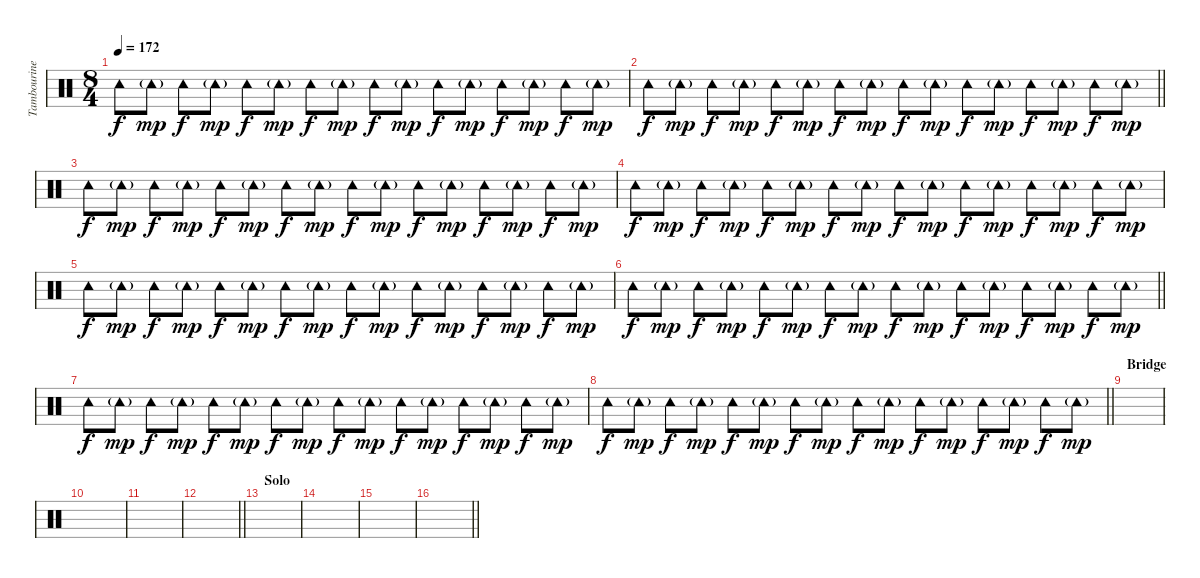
\track ("Tambourine" "Tambourine") {instrument percussion}
\staff {score}
\articulation defaults
\ts (8 4)
\tempo 172
\clef neutral
\ks c "Tambourine (hit)".8{dy f volume 8} "Tambourine (hit)"{g}.8{dy mp} "Tambourine (hit)".8{dy f} "Tambourine (hit)"{g}.8{dy mp} "Tambourine (hit)".8{dy f} "Tambourine (hit)"{g}.8{dy mp} "Tambourine (hit)".8{dy f} "Tambourine (hit)"{g}.8{dy mp} "Tambourine (hit)".8{dy f} "Tambourine (hit)"{g}.8{dy mp} "Tambourine (hit)".8{dy f} "Tambourine (hit)"{g}.8{dy mp} "Tambourine (hit)".8{dy f} "Tambourine (hit)"{g}.8{dy mp} "Tambourine (hit)".8{dy f} "Tambourine (hit)"{g}.8{dy mp}
|
\barLineRight lightlight "Tambourine (hit)".8{dy f} "Tambourine (hit)"{g}.8{dy mp} "Tambourine (hit)".8{dy f} "Tambourine (hit)"{g}.8{dy mp} "Tambourine (hit)".8{dy f} "Tambourine (hit)"{g}.8{dy mp} "Tambourine (hit)".8{dy f} "Tambourine (hit)"{g}.8{dy mp} "Tambourine (hit)".8{dy f} "Tambourine (hit)"{g}.8{dy mp} "Tambourine (hit)".8{dy f} "Tambourine (hit)"{g}.8{dy mp} "Tambourine (hit)".8{dy f} "Tambourine (hit)"{g}.8{dy mp} "Tambourine (hit)".8{dy f} "Tambourine (hit)"{g}.8{dy mp}
|
"Tambourine (hit)".8{dy f} "Tambourine (hit)"{g}.8{dy mp} "Tambourine (hit)".8{dy f} "Tambourine (hit)"{g}.8{dy mp} "Tambourine (hit)".8{dy f} "Tambourine (hit)"{g}.8{dy mp} "Tambourine (hit)".8{dy f} "Tambourine (hit)"{g}.8{dy mp} "Tambourine (hit)".8{dy f} "Tambourine (hit)"{g}.8{dy mp} "Tambourine (hit)".8{dy f} "Tambourine (hit)"{g}.8{dy mp} "Tambourine (hit)".8{dy f} "Tambourine (hit)"{g}.8{dy mp} "Tambourine (hit)".8{dy f} "Tambourine (hit)"{g}.8{dy mp} |
"Tambourine (hit)".8{dy f} "Tambourine (hit)"{g}.8{dy mp} "Tambourine (hit)".8{dy f} "Tambourine (hit)"{g}.8{dy mp} "Tambourine (hit)".8{dy f} "Tambourine (hit)"{g}.8{dy mp} "Tambourine (hit)".8{dy f} "Tambourine (hit)"{g}.8{dy mp} "Tambourine (hit)".8{dy f} "Tambourine (hit)"{g}.8{dy mp} "Tambourine (hit)".8{dy f} "Tambourine (hit)"{g}.8{dy mp} "Tambourine (hit)".8{dy f} "Tambourine (hit)"{g}.8{dy mp} "Tambourine (hit)".8{dy f} "Tambourine (hit)"{g}.8{dy mp} |
"Tambourine (hit)".8{dy f} "Tambourine (hit)"{g}.8{dy mp} "Tambourine (hit)".8{dy f} "Tambourine (hit)"{g}.8{dy mp} "Tambourine (hit)".8{dy f} "Tambourine (hit)"{g}.8{dy mp} "Tambourine (hit)".8{dy f} "Tambourine (hit)"{g}.8{dy mp} "Tambourine (hit)".8{dy f} "Tambourine (hit)"{g}.8{dy mp} "Tambourine (hit)".8{dy f} "Tambourine (hit)"{g}.8{dy mp} "Tambourine (hit)".8{dy f} "Tambourine (hit)"{g}.8{dy mp} "Tambourine (hit)".8{dy f} "Tambourine (hit)"{g}.8{dy mp} |
\barLineRight lightlight "Tambourine (hit)".8{dy f} "Tambourine (hit)"{g}.8{dy mp} "Tambourine (hit)".8{dy f} "Tambourine (hit)"{g}.8{dy mp} "Tambourine (hit)".8{dy f} "Tambourine (hit)"{g}.8{dy mp} "Tambourine (hit)".8{dy f} "Tambourine (hit)"{g}.8{dy mp} "Tambourine (hit)".8{dy f} "Tambourine (hit)"{g}.8{dy mp} "Tambourine (hit)".8{dy f} "Tambourine (hit)"{g}.8{dy mp} "Tambourine (hit)".8{dy f} "Tambourine (hit)"{g}.8{dy mp} "Tambourine (hit)".8{dy f} "Tambourine (hit)"{g}.8{dy mp}
|
"Tambourine (hit)".8{dy f} "Tambourine (hit)"{g}.8{dy mp} "Tambourine (hit)".8{dy f} "Tambourine (hit)"{g}.8{dy mp} "Tambourine (hit)".8{dy f} "Tambourine (hit)"{g}.8{dy mp} "Tambourine (hit)".8{dy f} "Tambourine (hit)"{g}.8{dy mp} "Tambourine (hit)".8{dy f} "Tambourine (hit)"{g}.8{dy mp} "Tambourine (hit)".8{dy f} "Tambourine (hit)"{g}.8{dy mp} "Tambourine (hit)".8{dy f} "Tambourine (hit)"{g}.8{dy mp} "Tambourine (hit)".8{dy f} "Tambourine (hit)"{g}.8{dy mp} |
\barLineRight lightlight "Tambourine (hit)".8{dy f} "Tambourine (hit)"{g}.8{dy mp} "Tambourine (hit)".8{dy f} "Tambourine (hit)"{g}.8{dy mp} "Tambourine (hit)".8{dy f} "Tambourine (hit)"{g}.8{dy mp} "Tambourine (hit)".8{dy f} "Tambourine (hit)"{g}.8{dy mp} "Tambourine (hit)".8{dy f} "Tambourine (hit)"{g}.8{dy mp} "Tambourine (hit)".8{dy f} "Tambourine (hit)"{g}.8{dy mp} "Tambourine (hit)".8{dy f} "Tambourine (hit)"{g}.8{dy mp} "Tambourine (hit)".8{dy f} "Tambourine (hit)"{g}.8{dy mp}
|
\section ("" "Bridge")
|
|
|
\barLineRight lightlight
|
\section ("" "Solo")
|
|
|
\barLineRight lightlight
